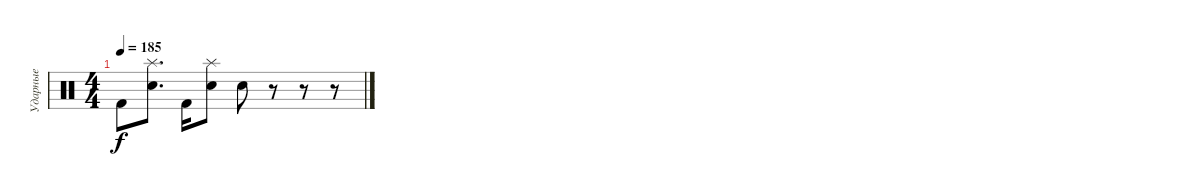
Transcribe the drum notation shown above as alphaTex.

\track ("Ударные" "Ударные") {instrument percussion}
\staff {score}
\articulation defaults
\ts (4 4)
\tempo 185
\clef neutral
\ks c "Kick (hit) 2".8{dy f}
("Splash (hit)" "Electric Snare (hit)").8{d} "Kick (hit) 2".16 ("Splash (hit)" "Electric Snare (hit)").8 "Electric Snare (hit)".8 r.8 r.8 r.8
